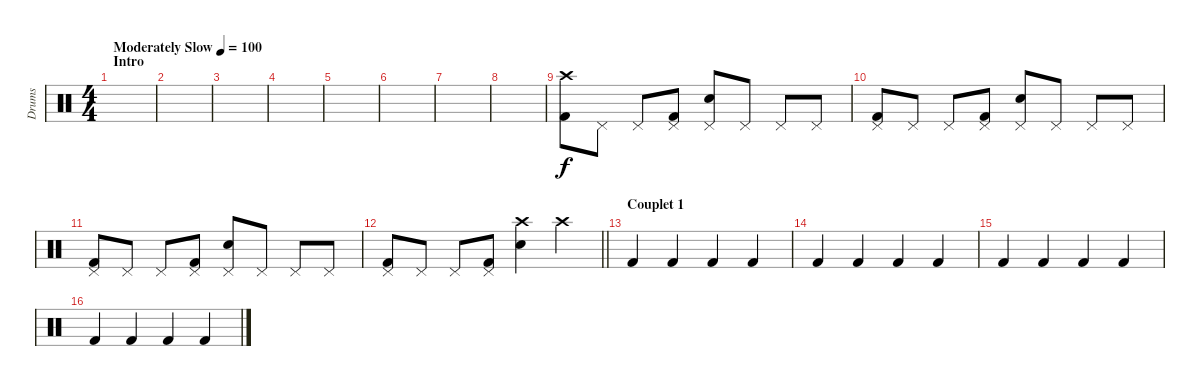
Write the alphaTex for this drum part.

\track ("Drums" "Drums") {instrument percussion}
\staff {score}
\articulation defaults
\ts (4 4)
\section ("" "Intro")
\tempo (100 "Moderately Slow")
\clef neutral
\ks c
|
|
|
|
|
|
|
|
("Crash high (hit)" "Kick (hit) 2").8 "Pedal Hi-Hat (hit)".8 "Pedal Hi-Hat (hit)".8 ("Pedal Hi-Hat (hit)" "Kick (hit) 2").8 ("Pedal Hi-Hat (hit)" "Snare (hit) 2").8 "Pedal Hi-Hat (hit)".8 "Pedal Hi-Hat (hit)".8 "Pedal Hi-Hat (hit)".8 |
("Pedal Hi-Hat (hit)" "Kick (hit) 2").8 "Pedal Hi-Hat (hit)".8 "Pedal Hi-Hat (hit)".8 ("Pedal Hi-Hat (hit)" "Kick (hit) 2").8 ("Pedal Hi-Hat (hit)" "Snare (hit) 2").8 "Pedal Hi-Hat (hit)".8 "Pedal Hi-Hat (hit)".8 "Pedal Hi-Hat (hit)".8 |
("Pedal Hi-Hat (hit)" "Kick (hit) 2").8 "Pedal Hi-Hat (hit)".8 "Pedal Hi-Hat (hit)".8 ("Pedal Hi-Hat (hit)" "Kick (hit) 2").8 ("Pedal Hi-Hat (hit)" "Snare (hit) 2").8 "Pedal Hi-Hat (hit)".8 "Pedal Hi-Hat (hit)".8 "Pedal Hi-Hat (hit)".8 |
\barLineRight lightlight
("Pedal Hi-Hat (hit)" "Kick (hit) 2").8 "Pedal Hi-Hat (hit)".8 "Pedal Hi-Hat (hit)".8 ("Pedal Hi-Hat (hit)" "Kick (hit) 2").8 ("Crash high (hit)" "Snare (hit) 2").4 "Crash high (hit)".4 |
\section ("" "Couplet 1")
"Kick (hit) 2".4 "Kick (hit) 2".4 "Kick (hit) 2".4 "Kick (hit) 2".4 |
"Kick (hit) 2".4 "Kick (hit) 2".4 "Kick (hit) 2".4 "Kick (hit) 2".4 |
"Kick (hit) 2".4 "Kick (hit) 2".4 "Kick (hit) 2".4 "Kick (hit) 2".4 |
"Kick (hit) 2".4 "Kick (hit) 2".4 "Kick (hit) 2".4 "Kick (hit) 2".4
